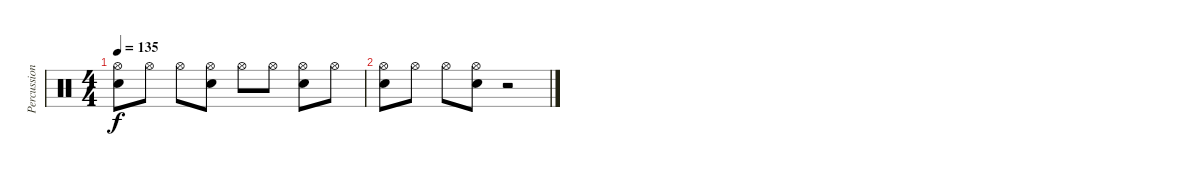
\track ("Percussions" "Percussion") {instrument percussion}
\staff {score}
\articulation defaults
\ts (4 4)
\tempo 135
\clef neutral
\ks c
("Hi-Hat (open)" "Electric Snare (hit)").8{dy f} "Hi-Hat (open)".8 "Hi-Hat (open)".8 ("Hi-Hat (open)" "Electric Snare (hit)").8 "Hi-Hat (open)".8 "Hi-Hat (open)".8 ("Hi-Hat (open)" "Electric Snare (hit)").8 "Hi-Hat (open)".8 |
("Hi-Hat (open)" "Electric Snare (hit)").8 "Hi-Hat (open)".8 "Hi-Hat (open)".8 ("Hi-Hat (open)" "Electric Snare (hit)").8 r.2
